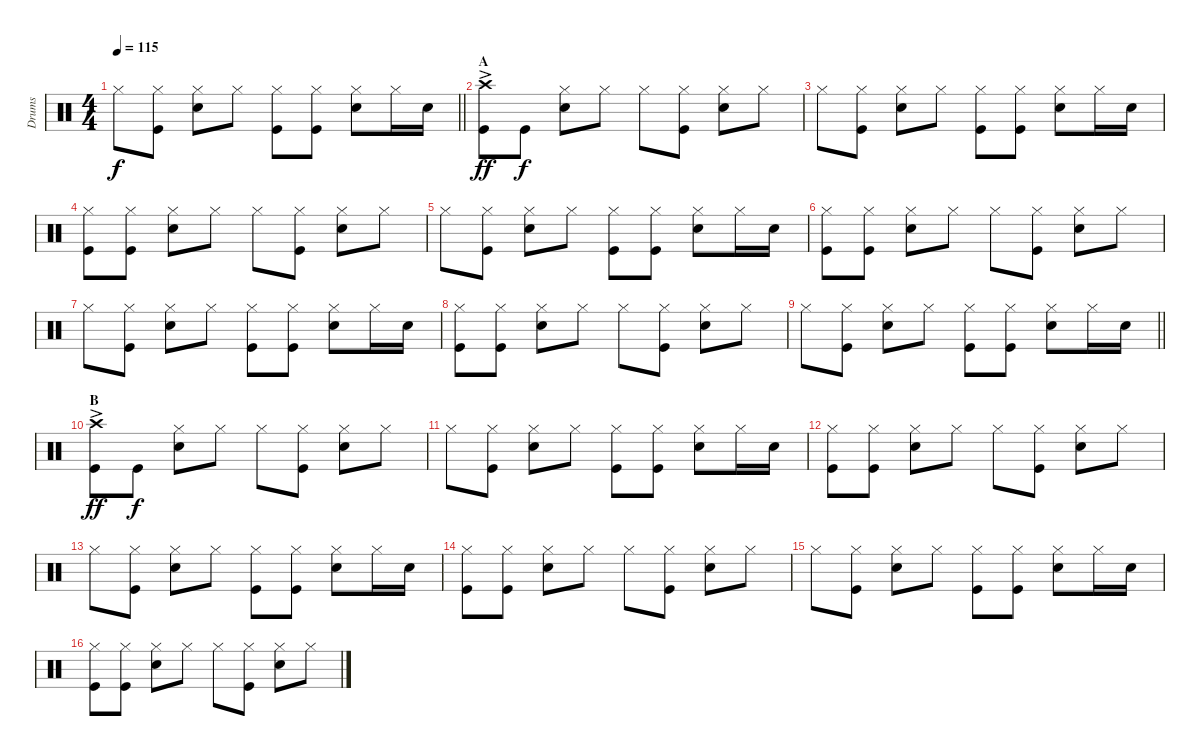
\track ("Drums" "Drums") {instrument percussion}
\staff {score}
\articulation defaults
\ts (4 4)
\tempo 115
\clef neutral
\barLineRight lightlight
\ks c "Hi-Hat (closed)".8{dy f}
("Hi-Hat (closed)" "Kick (hit)").8 ("Hi-Hat (closed)" "Snare (hit) 2").8 "Hi-Hat (closed)".8 ("Hi-Hat (closed)" "Kick (hit)").8 ("Hi-Hat (closed)" "Kick (hit)").8 ("Hi-Hat (closed)" "Snare (hit) 2").8 "Hi-Hat (closed)".16 "Snare (hit) 2".16 |
\section ("" "A")
("Crash high (hit)"{ac} "Kick (hit)").8{dy ff} "Kick (hit)".8{dy f} ("Snare (hit) 2" "Hi-Hat (closed)").8 "Hi-Hat (closed)".8 "Hi-Hat (closed)".8 ("Hi-Hat (closed)" "Kick (hit)").8 ("Hi-Hat (closed)" "Snare (hit) 2").8 "Hi-Hat (closed)".8 |
"Hi-Hat (closed)".8 ("Hi-Hat (closed)" "Kick (hit)").8 ("Hi-Hat (closed)" "Snare (hit) 2").8 "Hi-Hat (closed)".8 ("Hi-Hat (closed)" "Kick (hit)").8 ("Hi-Hat (closed)" "Kick (hit)").8 ("Hi-Hat (closed)" "Snare (hit) 2").8 "Hi-Hat (closed)".16 "Snare (hit) 2".16 |
("Hi-Hat (closed)" "Kick (hit)").8 ("Hi-Hat (closed)" "Kick (hit)").8 ("Hi-Hat (closed)" "Snare (hit) 2").8 "Hi-Hat (closed)".8 "Hi-Hat (closed)".8 ("Hi-Hat (closed)" "Kick (hit)").8 ("Hi-Hat (closed)" "Snare (hit) 2").8 "Hi-Hat (closed)".8 |
"Hi-Hat (closed)".8 ("Hi-Hat (closed)" "Kick (hit)").8 ("Hi-Hat (closed)" "Snare (hit) 2").8 "Hi-Hat (closed)".8 ("Hi-Hat (closed)" "Kick (hit)").8 ("Hi-Hat (closed)" "Kick (hit)").8 ("Hi-Hat (closed)" "Snare (hit) 2").8 "Hi-Hat (closed)".16 "Snare (hit) 2".16 |
("Hi-Hat (closed)" "Kick (hit)").8 ("Hi-Hat (closed)" "Kick (hit)").8 ("Hi-Hat (closed)" "Snare (hit) 2").8 "Hi-Hat (closed)".8 "Hi-Hat (closed)".8 ("Hi-Hat (closed)" "Kick (hit)").8 ("Hi-Hat (closed)" "Snare (hit) 2").8 "Hi-Hat (closed)".8 |
"Hi-Hat (closed)".8 ("Hi-Hat (closed)" "Kick (hit)").8 ("Hi-Hat (closed)" "Snare (hit) 2").8 "Hi-Hat (closed)".8 ("Hi-Hat (closed)" "Kick (hit)").8 ("Hi-Hat (closed)" "Kick (hit)").8 ("Hi-Hat (closed)" "Snare (hit) 2").8 "Hi-Hat (closed)".16 "Snare (hit) 2".16 |
("Hi-Hat (closed)" "Kick (hit)").8 ("Hi-Hat (closed)" "Kick (hit)").8 ("Hi-Hat (closed)" "Snare (hit) 2").8 "Hi-Hat (closed)".8 "Hi-Hat (closed)".8 ("Hi-Hat (closed)" "Kick (hit)").8 ("Hi-Hat (closed)" "Snare (hit) 2").8 "Hi-Hat (closed)".8 |
\barLineRight lightlight "Hi-Hat (closed)".8
("Hi-Hat (closed)" "Kick (hit)").8 ("Hi-Hat (closed)" "Snare (hit) 2").8 "Hi-Hat (closed)".8 ("Hi-Hat (closed)" "Kick (hit)").8 ("Hi-Hat (closed)" "Kick (hit)").8 ("Hi-Hat (closed)" "Snare (hit) 2").8 "Hi-Hat (closed)".16 "Snare (hit) 2".16 |
\section ("" "B")
("Crash high (hit)"{ac} "Kick (hit)").8{dy ff} "Kick (hit)".8{dy f} ("Snare (hit) 2" "Hi-Hat (closed)").8 "Hi-Hat (closed)".8 "Hi-Hat (closed)".8 ("Hi-Hat (closed)" "Kick (hit)").8 ("Hi-Hat (closed)" "Snare (hit) 2").8 "Hi-Hat (closed)".8 |
"Hi-Hat (closed)".8 ("Hi-Hat (closed)" "Kick (hit)").8 ("Hi-Hat (closed)" "Snare (hit) 2").8 "Hi-Hat (closed)".8 ("Hi-Hat (closed)" "Kick (hit)").8 ("Hi-Hat (closed)" "Kick (hit)").8 ("Hi-Hat (closed)" "Snare (hit) 2").8 "Hi-Hat (closed)".16 "Snare (hit) 2".16 |
("Hi-Hat (closed)" "Kick (hit)").8 ("Hi-Hat (closed)" "Kick (hit)").8 ("Hi-Hat (closed)" "Snare (hit) 2").8 "Hi-Hat (closed)".8 "Hi-Hat (closed)".8 ("Hi-Hat (closed)" "Kick (hit)").8 ("Hi-Hat (closed)" "Snare (hit) 2").8 "Hi-Hat (closed)".8 |
"Hi-Hat (closed)".8 ("Hi-Hat (closed)" "Kick (hit)").8 ("Hi-Hat (closed)" "Snare (hit) 2").8 "Hi-Hat (closed)".8 ("Hi-Hat (closed)" "Kick (hit)").8 ("Hi-Hat (closed)" "Kick (hit)").8 ("Hi-Hat (closed)" "Snare (hit) 2").8 "Hi-Hat (closed)".16 "Snare (hit) 2".16 |
("Hi-Hat (closed)" "Kick (hit)").8 ("Hi-Hat (closed)" "Kick (hit)").8 ("Hi-Hat (closed)" "Snare (hit) 2").8 "Hi-Hat (closed)".8 "Hi-Hat (closed)".8 ("Hi-Hat (closed)" "Kick (hit)").8 ("Hi-Hat (closed)" "Snare (hit) 2").8 "Hi-Hat (closed)".8 |
"Hi-Hat (closed)".8 ("Hi-Hat (closed)" "Kick (hit)").8 ("Hi-Hat (closed)" "Snare (hit) 2").8 "Hi-Hat (closed)".8 ("Hi-Hat (closed)" "Kick (hit)").8 ("Hi-Hat (closed)" "Kick (hit)").8 ("Hi-Hat (closed)" "Snare (hit) 2").8 "Hi-Hat (closed)".16 "Snare (hit) 2".16 |
("Hi-Hat (closed)" "Kick (hit)").8 ("Hi-Hat (closed)" "Kick (hit)").8 ("Hi-Hat (closed)" "Snare (hit) 2").8 "Hi-Hat (closed)".8 "Hi-Hat (closed)".8 ("Hi-Hat (closed)" "Kick (hit)").8 ("Hi-Hat (closed)" "Snare (hit) 2").8 "Hi-Hat (closed)".8
